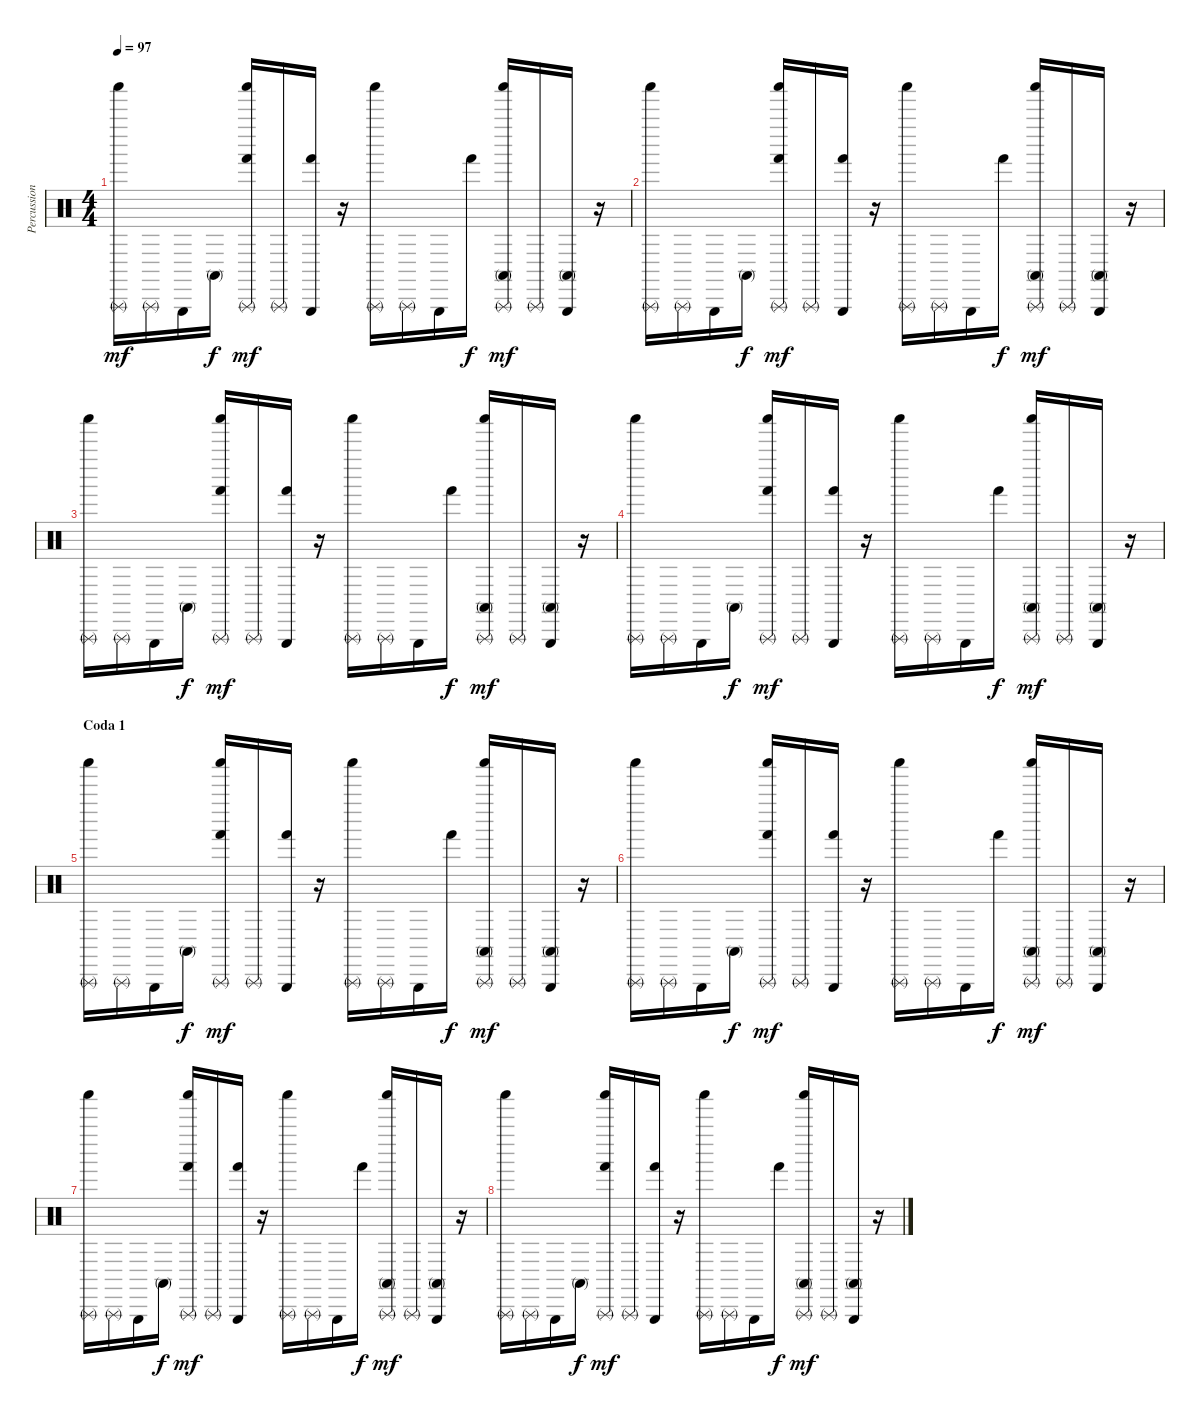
\track ("Percussions" "Percussion") {instrument percussion}
\staff {score}
\articulation defaults
\ts (4 4)
\tempo 97
\clef neutral
\ks c
("Triangle (rnute)" "Shaker (hit)").16{dy mf} "Triangle (rnute)".16 "Triangle (hit)".16 "Conga high (mute)".16{dy f} ("Triangle (rnute)" "Shaker (hit)" "Hand (hit)").16{dy mf} "Triangle (rnute)".16 ("Triangle (hit)" "Hand (hit)").16 r.16 ("Triangle (rnute)" "Shaker (hit)").16 "Triangle (rnute)".16 "Triangle (hit)".16 "Hand (hit)".16{dy f} ("Triangle (rnute)" "Shaker (hit)" "Conga high (mute)").16{dy mf} "Triangle (rnute)".16 ("Triangle (hit)" "Conga high (mute)").16 r.16 |
("Triangle (rnute)" "Shaker (hit)").16 "Triangle (rnute)".16 "Triangle (hit)".16 "Conga high (mute)".16{dy f} ("Triangle (rnute)" "Shaker (hit)" "Hand (hit)").16{dy mf} "Triangle (rnute)".16 ("Triangle (hit)" "Hand (hit)").16 r.16 ("Triangle (rnute)" "Shaker (hit)").16 "Triangle (rnute)".16 "Triangle (hit)".16 "Hand (hit)".16{dy f} ("Triangle (rnute)" "Shaker (hit)" "Conga high (mute)").16{dy mf} "Triangle (rnute)".16 ("Triangle (hit)" "Conga high (mute)").16 r.16 |
("Triangle (rnute)" "Shaker (hit)").16 "Triangle (rnute)".16 "Triangle (hit)".16 "Conga high (mute)".16{dy f} ("Triangle (rnute)" "Shaker (hit)" "Hand (hit)").16{dy mf} "Triangle (rnute)".16 ("Triangle (hit)" "Hand (hit)").16 r.16 ("Triangle (rnute)" "Shaker (hit)").16 "Triangle (rnute)".16 "Triangle (hit)".16 "Hand (hit)".16{dy f} ("Triangle (rnute)" "Shaker (hit)" "Conga high (mute)").16{dy mf} "Triangle (rnute)".16 ("Triangle (hit)" "Conga high (mute)").16 r.16 |
("Triangle (rnute)" "Shaker (hit)").16 "Triangle (rnute)".16 "Triangle (hit)".16 "Conga high (mute)".16{dy f} ("Triangle (rnute)" "Shaker (hit)" "Hand (hit)").16{dy mf} "Triangle (rnute)".16 ("Triangle (hit)" "Hand (hit)").16 r.16 ("Triangle (rnute)" "Shaker (hit)").16 "Triangle (rnute)".16 "Triangle (hit)".16 "Hand (hit)".16{dy f} ("Triangle (rnute)" "Shaker (hit)" "Conga high (mute)").16{dy mf} "Triangle (rnute)".16 ("Triangle (hit)" "Conga high (mute)").16 r.16 |
\section ("" "Coda 1")
("Triangle (rnute)" "Shaker (hit)").16 "Triangle (rnute)".16 "Triangle (hit)".16 "Conga high (mute)".16{dy f} ("Triangle (rnute)" "Shaker (hit)" "Hand (hit)").16{dy mf} "Triangle (rnute)".16 ("Triangle (hit)" "Hand (hit)").16 r.16 ("Triangle (rnute)" "Shaker (hit)").16 "Triangle (rnute)".16 "Triangle (hit)".16 "Hand (hit)".16{dy f} ("Triangle (rnute)" "Shaker (hit)" "Conga high (mute)").16{dy mf} "Triangle (rnute)".16 ("Triangle (hit)" "Conga high (mute)").16 r.16 |
("Triangle (rnute)" "Shaker (hit)").16 "Triangle (rnute)".16 "Triangle (hit)".16 "Conga high (mute)".16{dy f} ("Triangle (rnute)" "Shaker (hit)" "Hand (hit)").16{dy mf} "Triangle (rnute)".16 ("Triangle (hit)" "Hand (hit)").16 r.16 ("Triangle (rnute)" "Shaker (hit)").16 "Triangle (rnute)".16 "Triangle (hit)".16 "Hand (hit)".16{dy f} ("Triangle (rnute)" "Shaker (hit)" "Conga high (mute)").16{dy mf} "Triangle (rnute)".16 ("Triangle (hit)" "Conga high (mute)").16 r.16 |
("Triangle (rnute)" "Shaker (hit)").16 "Triangle (rnute)".16 "Triangle (hit)".16 "Conga high (mute)".16{dy f} ("Triangle (rnute)" "Shaker (hit)" "Hand (hit)").16{dy mf} "Triangle (rnute)".16 ("Triangle (hit)" "Hand (hit)").16 r.16 ("Triangle (rnute)" "Shaker (hit)").16 "Triangle (rnute)".16 "Triangle (hit)".16 "Hand (hit)".16{dy f} ("Triangle (rnute)" "Shaker (hit)" "Conga high (mute)").16{dy mf} "Triangle (rnute)".16 ("Triangle (hit)" "Conga high (mute)").16 r.16 |
("Triangle (rnute)" "Shaker (hit)").16 "Triangle (rnute)".16 "Triangle (hit)".16 "Conga high (mute)".16{dy f} ("Triangle (rnute)" "Shaker (hit)" "Hand (hit)").16{dy mf} "Triangle (rnute)".16 ("Triangle (hit)" "Hand (hit)").16 r.16 ("Triangle (rnute)" "Shaker (hit)").16 "Triangle (rnute)".16 "Triangle (hit)".16 "Hand (hit)".16{dy f} ("Triangle (rnute)" "Shaker (hit)" "Conga high (mute)").16{dy mf} "Triangle (rnute)".16 ("Triangle (hit)" "Conga high (mute)").16 r.16
